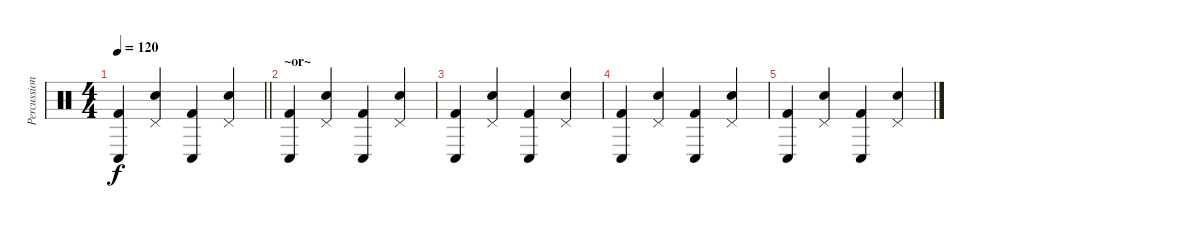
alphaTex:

\track ("Percussion" "Percussion") {instrument percussion}
\staff {score}
\articulation defaults
\ts (4 4)
\tempo 120
\clef neutral
\barLineRight lightlight
\ks c
("Kick (hit) 2" "Conga low (hit)").4{dy f} ("Snare (hit) 2" "Pedal Hi-Hat (hit)").4 ("Kick (hit) 2" "Conga low (hit)").4 ("Snare (hit) 2" "Pedal Hi-Hat (hit)").4 |
\section ("" "~or~")
("Kick (hit) 2" "Conga low (hit)").4 ("Snare (hit) 2" "Pedal Hi-Hat (hit)").4 ("Kick (hit) 2" "Conga low (hit)").4 ("Snare (hit) 2" "Pedal Hi-Hat (hit)").4 |
("Kick (hit) 2" "Conga low (hit)").4 ("Snare (hit) 2" "Pedal Hi-Hat (hit)").4 ("Kick (hit) 2" "Conga low (hit)").4 ("Snare (hit) 2" "Pedal Hi-Hat (hit)").4 |
("Kick (hit) 2" "Conga low (hit)").4 ("Snare (hit) 2" "Pedal Hi-Hat (hit)").4 ("Kick (hit) 2" "Conga low (hit)").4 ("Snare (hit) 2" "Pedal Hi-Hat (hit)").4 |
("Kick (hit) 2" "Conga low (hit)").4 ("Snare (hit) 2" "Pedal Hi-Hat (hit)").4 ("Kick (hit) 2" "Conga low (hit)").4 ("Snare (hit) 2" "Pedal Hi-Hat (hit)").4
